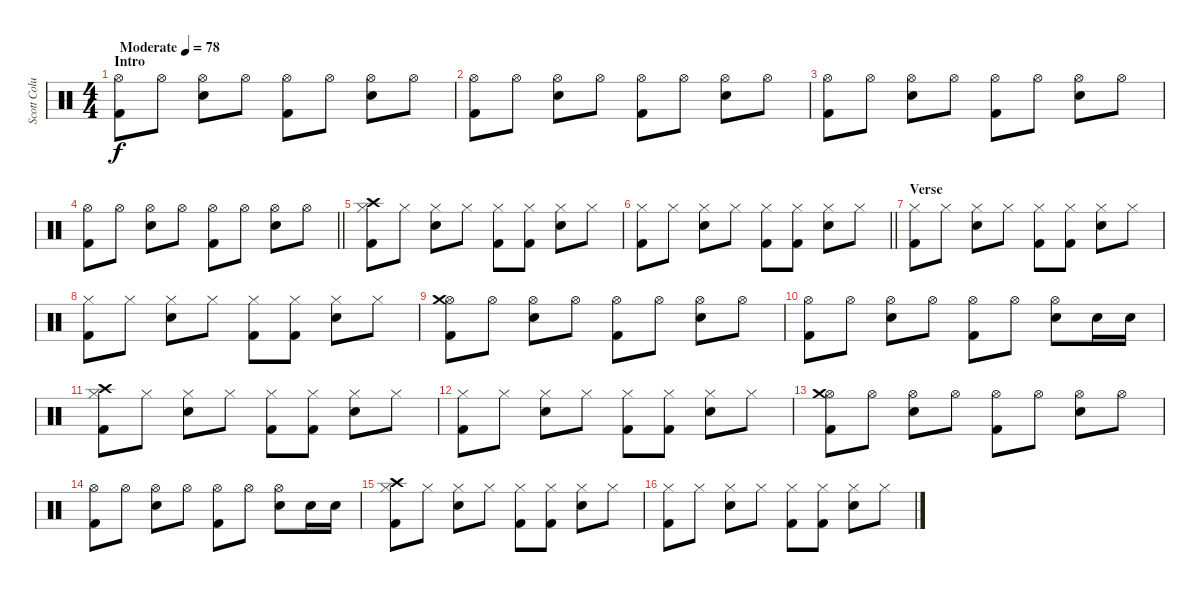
\track ("Scott Columbus" "Scott Colu") {instrument percussion}
\staff {score}
\articulation defaults
\ts (4 4)
\section ("" "Intro")
\tempo (78 "Moderate")
\clef neutral
\ks c
("Kick (hit) 2" "Hi-Hat (open)").8{dy f} "Hi-Hat (open)".8 ("Electric Snare (hit)" "Hi-Hat (open)").8 "Hi-Hat (open)".8 ("Kick (hit) 2" "Hi-Hat (open)").8 "Hi-Hat (open)".8 ("Electric Snare (hit)" "Hi-Hat (open)").8 "Hi-Hat (open)".8 |
("Kick (hit) 2" "Hi-Hat (open)").8 "Hi-Hat (open)".8 ("Electric Snare (hit)" "Hi-Hat (open)").8 "Hi-Hat (open)".8 ("Kick (hit) 2" "Hi-Hat (open)").8 "Hi-Hat (open)".8 ("Electric Snare (hit)" "Hi-Hat (open)").8 "Hi-Hat (open)".8 |
("Kick (hit) 2" "Hi-Hat (open)").8 "Hi-Hat (open)".8 ("Electric Snare (hit)" "Hi-Hat (open)").8 "Hi-Hat (open)".8 ("Kick (hit) 2" "Hi-Hat (open)").8 "Hi-Hat (open)".8 ("Electric Snare (hit)" "Hi-Hat (open)").8 "Hi-Hat (open)".8 |
\barLineRight lightlight
("Kick (hit) 2" "Hi-Hat (open)").8 "Hi-Hat (open)".8 ("Electric Snare (hit)" "Hi-Hat (open)").8 "Hi-Hat (open)".8 ("Kick (hit) 2" "Hi-Hat (open)").8 "Hi-Hat (open)".8 ("Electric Snare (hit)" "Hi-Hat (open)").8 "Hi-Hat (open)".8 |
\section ("" "")
("Kick (hit) 2" "Hi-Hat (closed)" "Crash high (hit)").8 "Hi-Hat (closed)".8 ("Electric Snare (hit)" "Hi-Hat (closed)").8 "Hi-Hat (closed)".8 ("Kick (hit) 2" "Hi-Hat (closed)").8 ("Kick (hit) 2" "Hi-Hat (closed)").8 ("Electric Snare (hit)" "Hi-Hat (closed)").8 "Hi-Hat (closed)".8 |
\barLineRight lightlight
("Kick (hit) 2" "Hi-Hat (closed)").8 "Hi-Hat (closed)".8 ("Electric Snare (hit)" "Hi-Hat (closed)").8 "Hi-Hat (closed)".8 ("Kick (hit) 2" "Hi-Hat (closed)").8 ("Kick (hit) 2" "Hi-Hat (closed)").8 ("Electric Snare (hit)" "Hi-Hat (closed)").8 "Hi-Hat (closed)".8 |
\section ("" "Verse")
("Kick (hit) 2" "Hi-Hat (closed)").8 "Hi-Hat (closed)".8 ("Electric Snare (hit)" "Hi-Hat (closed)").8 "Hi-Hat (closed)".8 ("Kick (hit) 2" "Hi-Hat (closed)").8 ("Kick (hit) 2" "Hi-Hat (closed)").8 ("Electric Snare (hit)" "Hi-Hat (closed)").8 "Hi-Hat (closed)".8 |
("Kick (hit) 2" "Hi-Hat (closed)").8 "Hi-Hat (closed)".8 ("Electric Snare (hit)" "Hi-Hat (closed)").8 "Hi-Hat (closed)".8 ("Kick (hit) 2" "Hi-Hat (closed)").8 ("Kick (hit) 2" "Hi-Hat (closed)").8 ("Electric Snare (hit)" "Hi-Hat (closed)").8 "Hi-Hat (closed)".8 |
("Kick (hit) 2" "Hi-Hat (open)" "Crash medium (hit)").8 "Hi-Hat (open)".8 ("Electric Snare (hit)" "Hi-Hat (open)").8 "Hi-Hat (open)".8 ("Kick (hit) 2" "Hi-Hat (open)").8 "Hi-Hat (open)".8 ("Electric Snare (hit)" "Hi-Hat (open)").8 "Hi-Hat (open)".8 |
("Kick (hit) 2" "Hi-Hat (open)").8 "Hi-Hat (open)".8 ("Electric Snare (hit)" "Hi-Hat (open)").8 "Hi-Hat (open)".8 ("Kick (hit) 2" "Hi-Hat (open)").8 "Hi-Hat (open)".8 ("Electric Snare (hit)" "Hi-Hat (open)").8 "Electric Snare (hit)".16 "Electric Snare (hit)".16 |
("Kick (hit) 2" "Hi-Hat (closed)" "Crash high (hit)").8 "Hi-Hat (closed)".8 ("Electric Snare (hit)" "Hi-Hat (closed)").8 "Hi-Hat (closed)".8 ("Kick (hit) 2" "Hi-Hat (closed)").8 ("Kick (hit) 2" "Hi-Hat (closed)").8 ("Electric Snare (hit)" "Hi-Hat (closed)").8 "Hi-Hat (closed)".8 |
("Kick (hit) 2" "Hi-Hat (closed)").8 "Hi-Hat (closed)".8 ("Electric Snare (hit)" "Hi-Hat (closed)").8 "Hi-Hat (closed)".8 ("Kick (hit) 2" "Hi-Hat (closed)").8 ("Kick (hit) 2" "Hi-Hat (closed)").8 ("Electric Snare (hit)" "Hi-Hat (closed)").8 "Hi-Hat (closed)".8 |
("Kick (hit) 2" "Hi-Hat (open)" "Crash medium (hit)").8 "Hi-Hat (open)".8 ("Electric Snare (hit)" "Hi-Hat (open)").8 "Hi-Hat (open)".8 ("Kick (hit) 2" "Hi-Hat (open)").8 "Hi-Hat (open)".8 ("Electric Snare (hit)" "Hi-Hat (open)").8 "Hi-Hat (open)".8 |
("Kick (hit) 2" "Hi-Hat (open)").8 "Hi-Hat (open)".8 ("Electric Snare (hit)" "Hi-Hat (open)").8 "Hi-Hat (open)".8 ("Kick (hit) 2" "Hi-Hat (open)").8 "Hi-Hat (open)".8 ("Electric Snare (hit)" "Hi-Hat (open)").8 "Electric Snare (hit)".16 "Electric Snare (hit)".16 |
("Kick (hit) 2" "Hi-Hat (closed)" "Crash high (hit)").8 "Hi-Hat (closed)".8 ("Electric Snare (hit)" "Hi-Hat (closed)").8 "Hi-Hat (closed)".8 ("Kick (hit) 2" "Hi-Hat (closed)").8 ("Kick (hit) 2" "Hi-Hat (closed)").8 ("Electric Snare (hit)" "Hi-Hat (closed)").8 "Hi-Hat (closed)".8 |
("Kick (hit) 2" "Hi-Hat (closed)").8 "Hi-Hat (closed)".8 ("Electric Snare (hit)" "Hi-Hat (closed)").8 "Hi-Hat (closed)".8 ("Kick (hit) 2" "Hi-Hat (closed)").8 ("Kick (hit) 2" "Hi-Hat (closed)").8 ("Electric Snare (hit)" "Hi-Hat (closed)").8 "Hi-Hat (closed)".8
